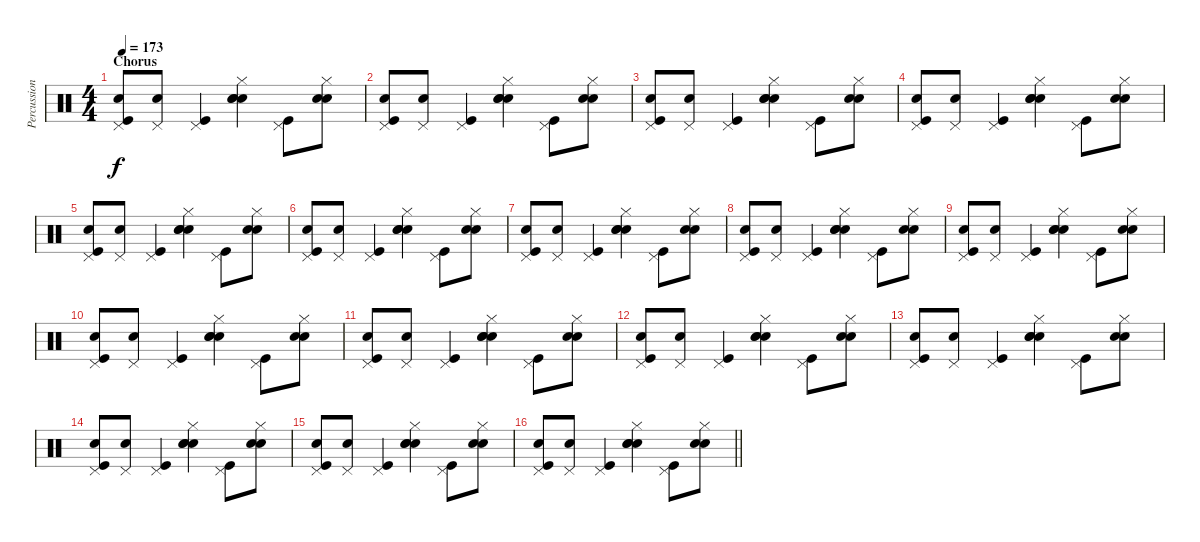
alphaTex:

\track ("Percussion" "Percussion") {instrument percussion}
\staff {score}
\articulation defaults
\ts (4 4)
\section ("" "Chorus")
\tempo 173
\clef neutral
\ks c
("Hand Clap (hit)" "Pedal Hi-Hat (hit)" "Kick (hit)").8{dy f} ("Pedal Hi-Hat (hit)" "Electric Snare (hit)").8 ("Pedal Hi-Hat (hit)" "Kick (hit)").4 ("Hand Clap (hit)" "Hand Clap (hit)" "Hi-Hat (closed)" "Electric Snare (hit)").4 ("Pedal Hi-Hat (hit)" "Kick (hit)").8 ("Hand Clap (hit)" "Hi-Hat (closed)" "Electric Snare (hit)").8 |
("Hand Clap (hit)" "Pedal Hi-Hat (hit)" "Kick (hit)").8 ("Pedal Hi-Hat (hit)" "Electric Snare (hit)").8 ("Pedal Hi-Hat (hit)" "Kick (hit)").4 ("Hand Clap (hit)" "Hand Clap (hit)" "Hi-Hat (closed)" "Electric Snare (hit)").4 ("Pedal Hi-Hat (hit)" "Kick (hit)").8 ("Hand Clap (hit)" "Hi-Hat (closed)" "Electric Snare (hit)").8 |
("Hand Clap (hit)" "Pedal Hi-Hat (hit)" "Kick (hit)").8 ("Pedal Hi-Hat (hit)" "Electric Snare (hit)").8 ("Pedal Hi-Hat (hit)" "Kick (hit)").4 ("Hand Clap (hit)" "Hand Clap (hit)" "Hi-Hat (closed)" "Electric Snare (hit)").4 ("Pedal Hi-Hat (hit)" "Kick (hit)").8 ("Hand Clap (hit)" "Hi-Hat (closed)" "Electric Snare (hit)").8 |
("Hand Clap (hit)" "Pedal Hi-Hat (hit)" "Kick (hit)").8 ("Pedal Hi-Hat (hit)" "Electric Snare (hit)").8 ("Pedal Hi-Hat (hit)" "Kick (hit)").4 ("Hand Clap (hit)" "Hand Clap (hit)" "Hi-Hat (closed)" "Electric Snare (hit)").4 ("Pedal Hi-Hat (hit)" "Kick (hit)").8 ("Hand Clap (hit)" "Hi-Hat (closed)" "Electric Snare (hit)").8 |
("Hand Clap (hit)" "Pedal Hi-Hat (hit)" "Kick (hit)").8 ("Pedal Hi-Hat (hit)" "Electric Snare (hit)").8 ("Pedal Hi-Hat (hit)" "Kick (hit)").4 ("Hand Clap (hit)" "Hand Clap (hit)" "Hi-Hat (closed)" "Electric Snare (hit)").4 ("Pedal Hi-Hat (hit)" "Kick (hit)").8 ("Hand Clap (hit)" "Hi-Hat (closed)" "Electric Snare (hit)").8 |
("Hand Clap (hit)" "Pedal Hi-Hat (hit)" "Kick (hit)").8 ("Pedal Hi-Hat (hit)" "Electric Snare (hit)").8 ("Pedal Hi-Hat (hit)" "Kick (hit)").4 ("Hand Clap (hit)" "Hand Clap (hit)" "Hi-Hat (closed)" "Electric Snare (hit)").4 ("Pedal Hi-Hat (hit)" "Kick (hit)").8 ("Hand Clap (hit)" "Hi-Hat (closed)" "Electric Snare (hit)").8 |
("Hand Clap (hit)" "Pedal Hi-Hat (hit)" "Kick (hit)").8 ("Pedal Hi-Hat (hit)" "Electric Snare (hit)").8 ("Pedal Hi-Hat (hit)" "Kick (hit)").4 ("Hand Clap (hit)" "Hand Clap (hit)" "Hi-Hat (closed)" "Electric Snare (hit)").4 ("Pedal Hi-Hat (hit)" "Kick (hit)").8 ("Hand Clap (hit)" "Hi-Hat (closed)" "Electric Snare (hit)").8 |
("Hand Clap (hit)" "Pedal Hi-Hat (hit)" "Kick (hit)").8 ("Pedal Hi-Hat (hit)" "Electric Snare (hit)").8 ("Pedal Hi-Hat (hit)" "Kick (hit)").4 ("Hand Clap (hit)" "Hand Clap (hit)" "Hi-Hat (closed)" "Electric Snare (hit)").4 ("Pedal Hi-Hat (hit)" "Kick (hit)").8 ("Hand Clap (hit)" "Hi-Hat (closed)" "Electric Snare (hit)").8 |
("Hand Clap (hit)" "Pedal Hi-Hat (hit)" "Kick (hit)").8 ("Pedal Hi-Hat (hit)" "Electric Snare (hit)").8 ("Pedal Hi-Hat (hit)" "Kick (hit)").4 ("Hand Clap (hit)" "Hand Clap (hit)" "Hi-Hat (closed)" "Electric Snare (hit)").4 ("Pedal Hi-Hat (hit)" "Kick (hit)").8 ("Hand Clap (hit)" "Hi-Hat (closed)" "Electric Snare (hit)").8 |
("Hand Clap (hit)" "Pedal Hi-Hat (hit)" "Kick (hit)").8 ("Pedal Hi-Hat (hit)" "Electric Snare (hit)").8 ("Pedal Hi-Hat (hit)" "Kick (hit)").4 ("Hand Clap (hit)" "Hand Clap (hit)" "Hi-Hat (closed)" "Electric Snare (hit)").4 ("Pedal Hi-Hat (hit)" "Kick (hit)").8 ("Hand Clap (hit)" "Hi-Hat (closed)" "Electric Snare (hit)").8 |
("Hand Clap (hit)" "Pedal Hi-Hat (hit)" "Kick (hit)").8 ("Pedal Hi-Hat (hit)" "Electric Snare (hit)").8 ("Pedal Hi-Hat (hit)" "Kick (hit)").4 ("Hand Clap (hit)" "Hand Clap (hit)" "Hi-Hat (closed)" "Electric Snare (hit)").4 ("Pedal Hi-Hat (hit)" "Kick (hit)").8 ("Hand Clap (hit)" "Hi-Hat (closed)" "Electric Snare (hit)").8 |
("Hand Clap (hit)" "Pedal Hi-Hat (hit)" "Kick (hit)").8 ("Pedal Hi-Hat (hit)" "Electric Snare (hit)").8 ("Pedal Hi-Hat (hit)" "Kick (hit)").4 ("Hand Clap (hit)" "Hand Clap (hit)" "Hi-Hat (closed)" "Electric Snare (hit)").4 ("Pedal Hi-Hat (hit)" "Kick (hit)").8 ("Hand Clap (hit)" "Hi-Hat (closed)" "Electric Snare (hit)").8 |
("Hand Clap (hit)" "Pedal Hi-Hat (hit)" "Kick (hit)").8 ("Pedal Hi-Hat (hit)" "Electric Snare (hit)").8 ("Pedal Hi-Hat (hit)" "Kick (hit)").4 ("Hand Clap (hit)" "Hand Clap (hit)" "Hi-Hat (closed)" "Electric Snare (hit)").4 ("Pedal Hi-Hat (hit)" "Kick (hit)").8 ("Hand Clap (hit)" "Hi-Hat (closed)" "Electric Snare (hit)").8 |
("Hand Clap (hit)" "Pedal Hi-Hat (hit)" "Kick (hit)").8 ("Pedal Hi-Hat (hit)" "Electric Snare (hit)").8 ("Pedal Hi-Hat (hit)" "Kick (hit)").4 ("Hand Clap (hit)" "Hand Clap (hit)" "Hi-Hat (closed)" "Electric Snare (hit)").4 ("Pedal Hi-Hat (hit)" "Kick (hit)").8 ("Hand Clap (hit)" "Hi-Hat (closed)" "Electric Snare (hit)").8 |
("Hand Clap (hit)" "Pedal Hi-Hat (hit)" "Kick (hit)").8 ("Pedal Hi-Hat (hit)" "Electric Snare (hit)").8 ("Pedal Hi-Hat (hit)" "Kick (hit)").4 ("Hand Clap (hit)" "Hand Clap (hit)" "Hi-Hat (closed)" "Electric Snare (hit)").4 ("Pedal Hi-Hat (hit)" "Kick (hit)").8 ("Hand Clap (hit)" "Hi-Hat (closed)" "Electric Snare (hit)").8 |
\barLineRight lightlight
("Hand Clap (hit)" "Pedal Hi-Hat (hit)" "Kick (hit)").8 ("Pedal Hi-Hat (hit)" "Electric Snare (hit)").8 ("Pedal Hi-Hat (hit)" "Kick (hit)").4 ("Hand Clap (hit)" "Hand Clap (hit)" "Hi-Hat (closed)" "Electric Snare (hit)").4 ("Pedal Hi-Hat (hit)" "Kick (hit)").8 ("Hand Clap (hit)" "Hi-Hat (closed)" "Electric Snare (hit)").8
